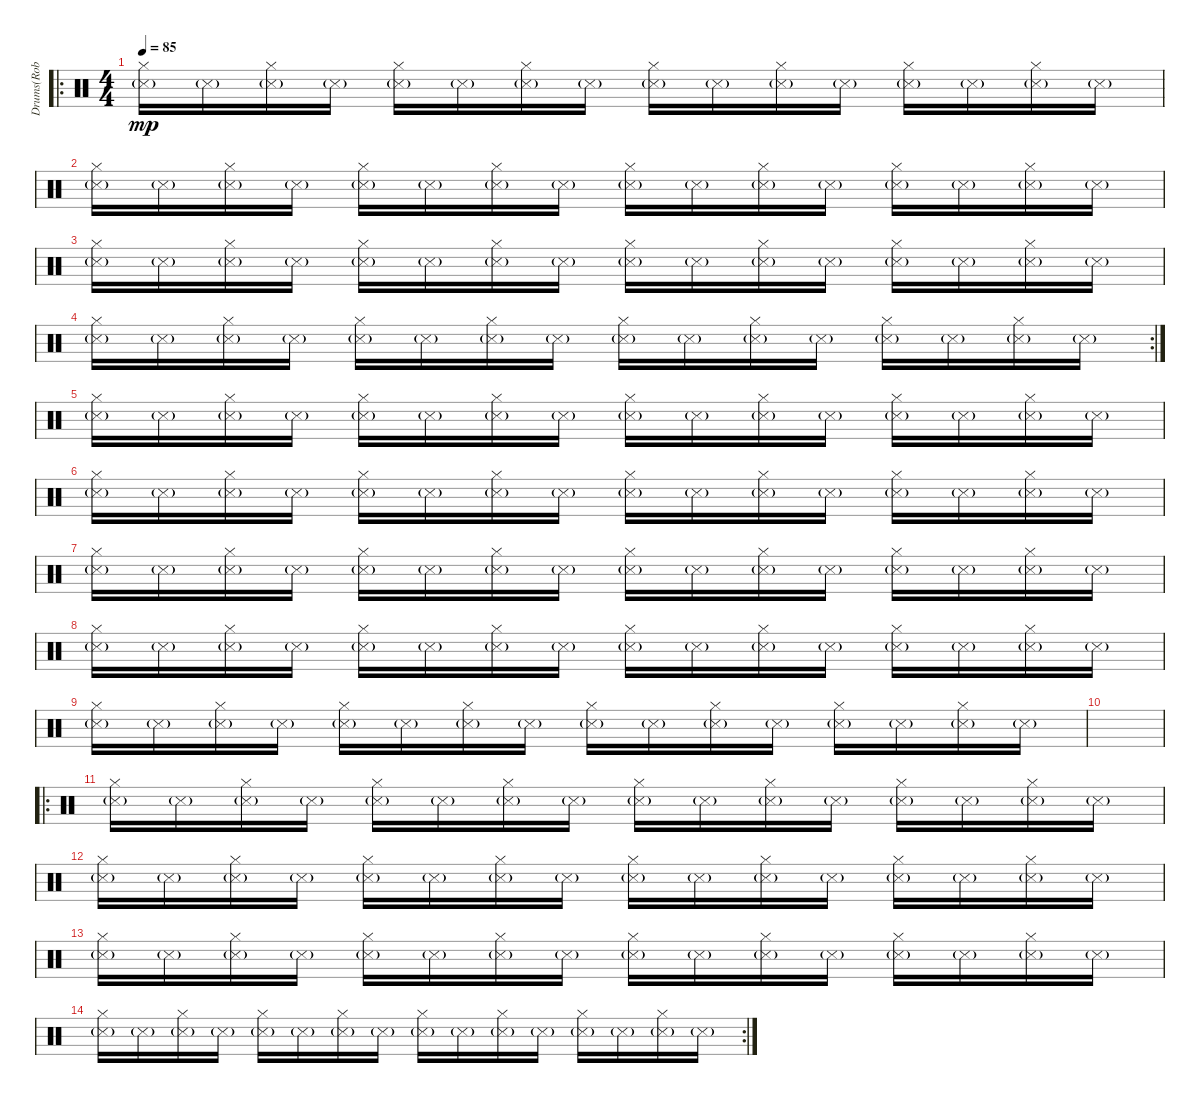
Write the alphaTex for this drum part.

\track ("Drums(Rob Bourdon)(Left hand)" "Drums(Rob ") {instrument percussion}
\staff {score}
\articulation defaults
\ro
\ts (4 4)
\tempo 85
\clef neutral
\ks c
("Metronome (hit)"{g} "Hi-Hat (closed)").16{dy mp} "Metronome (hit)"{g}.16 ("Metronome (hit)"{g} "Hi-Hat (closed)").16 "Metronome (hit)"{g}.16 ("Metronome (hit)"{g} "Hi-Hat (closed)").16 "Metronome (hit)"{g}.16 ("Metronome (hit)"{g} "Hi-Hat (closed)").16 "Metronome (hit)"{g}.16 ("Metronome (hit)"{g} "Hi-Hat (closed)").16 "Metronome (hit)"{g}.16 ("Metronome (hit)"{g} "Hi-Hat (closed)").16 "Metronome (hit)"{g}.16 ("Metronome (hit)"{g} "Hi-Hat (closed)").16 "Metronome (hit)"{g}.16 ("Metronome (hit)"{g} "Hi-Hat (closed)").16 "Metronome (hit)"{g}.16 |
("Metronome (hit)"{g} "Hi-Hat (closed)").16 "Metronome (hit)"{g}.16 ("Metronome (hit)"{g} "Hi-Hat (closed)").16 "Metronome (hit)"{g}.16 ("Metronome (hit)"{g} "Hi-Hat (closed)").16 "Metronome (hit)"{g}.16 ("Metronome (hit)"{g} "Hi-Hat (closed)").16 "Metronome (hit)"{g}.16 ("Metronome (hit)"{g} "Hi-Hat (closed)").16 "Metronome (hit)"{g}.16 ("Metronome (hit)"{g} "Hi-Hat (closed)").16 "Metronome (hit)"{g}.16 ("Metronome (hit)"{g} "Hi-Hat (closed)").16 "Metronome (hit)"{g}.16 ("Metronome (hit)"{g} "Hi-Hat (closed)").16 "Metronome (hit)"{g}.16 |
("Metronome (hit)"{g} "Hi-Hat (closed)").16 "Metronome (hit)"{g}.16 ("Metronome (hit)"{g} "Hi-Hat (closed)").16 "Metronome (hit)"{g}.16 ("Metronome (hit)"{g} "Hi-Hat (closed)").16 "Metronome (hit)"{g}.16 ("Metronome (hit)"{g} "Hi-Hat (closed)").16 "Metronome (hit)"{g}.16 ("Metronome (hit)"{g} "Hi-Hat (closed)").16 "Metronome (hit)"{g}.16 ("Metronome (hit)"{g} "Hi-Hat (closed)").16 "Metronome (hit)"{g}.16 ("Metronome (hit)"{g} "Hi-Hat (closed)").16 "Metronome (hit)"{g}.16 ("Metronome (hit)"{g} "Hi-Hat (closed)").16 "Metronome (hit)"{g}.16 |
\rc 2
("Metronome (hit)"{g} "Hi-Hat (closed)").16 "Metronome (hit)"{g}.16 ("Metronome (hit)"{g} "Hi-Hat (closed)").16 "Metronome (hit)"{g}.16 ("Metronome (hit)"{g} "Hi-Hat (closed)").16 "Metronome (hit)"{g}.16 ("Metronome (hit)"{g} "Hi-Hat (closed)").16 "Metronome (hit)"{g}.16 ("Metronome (hit)"{g} "Hi-Hat (closed)").16 "Metronome (hit)"{g}.16 ("Metronome (hit)"{g} "Hi-Hat (closed)").16 "Metronome (hit)"{g}.16 ("Metronome (hit)"{g} "Hi-Hat (closed)").16 "Metronome (hit)"{g}.16 ("Metronome (hit)"{g} "Hi-Hat (closed)").16 "Metronome (hit)"{g}.16 |
("Metronome (hit)"{g} "Hi-Hat (closed)").16 "Metronome (hit)"{g}.16 ("Metronome (hit)"{g} "Hi-Hat (closed)").16 "Metronome (hit)"{g}.16 ("Metronome (hit)"{g} "Hi-Hat (closed)").16 "Metronome (hit)"{g}.16 ("Metronome (hit)"{g} "Hi-Hat (closed)").16 "Metronome (hit)"{g}.16 ("Metronome (hit)"{g} "Hi-Hat (closed)").16 "Metronome (hit)"{g}.16 ("Metronome (hit)"{g} "Hi-Hat (closed)").16 "Metronome (hit)"{g}.16 ("Metronome (hit)"{g} "Hi-Hat (closed)").16 "Metronome (hit)"{g}.16 ("Metronome (hit)"{g} "Hi-Hat (closed)").16 "Metronome (hit)"{g}.16 |
("Metronome (hit)"{g} "Hi-Hat (closed)").16 "Metronome (hit)"{g}.16 ("Metronome (hit)"{g} "Hi-Hat (closed)").16 "Metronome (hit)"{g}.16 ("Metronome (hit)"{g} "Hi-Hat (closed)").16 "Metronome (hit)"{g}.16 ("Metronome (hit)"{g} "Hi-Hat (closed)").16 "Metronome (hit)"{g}.16 ("Metronome (hit)"{g} "Hi-Hat (closed)").16 "Metronome (hit)"{g}.16 ("Metronome (hit)"{g} "Hi-Hat (closed)").16 "Metronome (hit)"{g}.16 ("Metronome (hit)"{g} "Hi-Hat (closed)").16 "Metronome (hit)"{g}.16 ("Metronome (hit)"{g} "Hi-Hat (closed)").16 "Metronome (hit)"{g}.16 |
("Metronome (hit)"{g} "Hi-Hat (closed)").16 "Metronome (hit)"{g}.16 ("Metronome (hit)"{g} "Hi-Hat (closed)").16 "Metronome (hit)"{g}.16 ("Metronome (hit)"{g} "Hi-Hat (closed)").16 "Metronome (hit)"{g}.16 ("Metronome (hit)"{g} "Hi-Hat (closed)").16 "Metronome (hit)"{g}.16 ("Metronome (hit)"{g} "Hi-Hat (closed)").16 "Metronome (hit)"{g}.16 ("Metronome (hit)"{g} "Hi-Hat (closed)").16 "Metronome (hit)"{g}.16 ("Metronome (hit)"{g} "Hi-Hat (closed)").16 "Metronome (hit)"{g}.16 ("Metronome (hit)"{g} "Hi-Hat (closed)").16 "Metronome (hit)"{g}.16 |
("Metronome (hit)"{g} "Hi-Hat (closed)").16 "Metronome (hit)"{g}.16 ("Metronome (hit)"{g} "Hi-Hat (closed)").16 "Metronome (hit)"{g}.16 ("Metronome (hit)"{g} "Hi-Hat (closed)").16 "Metronome (hit)"{g}.16 ("Metronome (hit)"{g} "Hi-Hat (closed)").16 "Metronome (hit)"{g}.16 ("Metronome (hit)"{g} "Hi-Hat (closed)").16 "Metronome (hit)"{g}.16 ("Metronome (hit)"{g} "Hi-Hat (closed)").16 "Metronome (hit)"{g}.16 ("Metronome (hit)"{g} "Hi-Hat (closed)").16 "Metronome (hit)"{g}.16 ("Metronome (hit)"{g} "Hi-Hat (closed)").16 "Metronome (hit)"{g}.16 |
("Metronome (hit)"{g} "Hi-Hat (closed)").16 "Metronome (hit)"{g}.16 ("Metronome (hit)"{g} "Hi-Hat (closed)").16 "Metronome (hit)"{g}.16 ("Metronome (hit)"{g} "Hi-Hat (closed)").16 "Metronome (hit)"{g}.16 ("Metronome (hit)"{g} "Hi-Hat (closed)").16 "Metronome (hit)"{g}.16 ("Metronome (hit)"{g} "Hi-Hat (closed)").16 "Metronome (hit)"{g}.16 ("Metronome (hit)"{g} "Hi-Hat (closed)").16 "Metronome (hit)"{g}.16 ("Metronome (hit)"{g} "Hi-Hat (closed)").16 "Metronome (hit)"{g}.16 ("Metronome (hit)"{g} "Hi-Hat (closed)").16 "Metronome (hit)"{g}.16 |
|
\ro
("Metronome (hit)"{g} "Hi-Hat (closed)").16 "Metronome (hit)"{g}.16 ("Metronome (hit)"{g} "Hi-Hat (closed)").16 "Metronome (hit)"{g}.16 ("Metronome (hit)"{g} "Hi-Hat (closed)").16 "Metronome (hit)"{g}.16 ("Metronome (hit)"{g} "Hi-Hat (closed)").16 "Metronome (hit)"{g}.16 ("Metronome (hit)"{g} "Hi-Hat (closed)").16 "Metronome (hit)"{g}.16 ("Metronome (hit)"{g} "Hi-Hat (closed)").16 "Metronome (hit)"{g}.16 ("Metronome (hit)"{g} "Hi-Hat (closed)").16 "Metronome (hit)"{g}.16 ("Metronome (hit)"{g} "Hi-Hat (closed)").16 "Metronome (hit)"{g}.16 |
("Metronome (hit)"{g} "Hi-Hat (closed)").16 "Metronome (hit)"{g}.16 ("Metronome (hit)"{g} "Hi-Hat (closed)").16 "Metronome (hit)"{g}.16 ("Metronome (hit)"{g} "Hi-Hat (closed)").16 "Metronome (hit)"{g}.16 ("Metronome (hit)"{g} "Hi-Hat (closed)").16 "Metronome (hit)"{g}.16 ("Metronome (hit)"{g} "Hi-Hat (closed)").16 "Metronome (hit)"{g}.16 ("Metronome (hit)"{g} "Hi-Hat (closed)").16 "Metronome (hit)"{g}.16 ("Metronome (hit)"{g} "Hi-Hat (closed)").16 "Metronome (hit)"{g}.16 ("Metronome (hit)"{g} "Hi-Hat (closed)").16 "Metronome (hit)"{g}.16 |
("Metronome (hit)"{g} "Hi-Hat (closed)").16 "Metronome (hit)"{g}.16 ("Metronome (hit)"{g} "Hi-Hat (closed)").16 "Metronome (hit)"{g}.16 ("Metronome (hit)"{g} "Hi-Hat (closed)").16 "Metronome (hit)"{g}.16 ("Metronome (hit)"{g} "Hi-Hat (closed)").16 "Metronome (hit)"{g}.16 ("Metronome (hit)"{g} "Hi-Hat (closed)").16 "Metronome (hit)"{g}.16 ("Metronome (hit)"{g} "Hi-Hat (closed)").16 "Metronome (hit)"{g}.16 ("Metronome (hit)"{g} "Hi-Hat (closed)").16 "Metronome (hit)"{g}.16 ("Metronome (hit)"{g} "Hi-Hat (closed)").16 "Metronome (hit)"{g}.16 |
\rc 2
("Metronome (hit)"{g} "Hi-Hat (closed)").16 "Metronome (hit)"{g}.16 ("Metronome (hit)"{g} "Hi-Hat (closed)").16 "Metronome (hit)"{g}.16 ("Metronome (hit)"{g} "Hi-Hat (closed)").16 "Metronome (hit)"{g}.16 ("Metronome (hit)"{g} "Hi-Hat (closed)").16 "Metronome (hit)"{g}.16 ("Metronome (hit)"{g} "Hi-Hat (closed)").16 "Metronome (hit)"{g}.16 ("Metronome (hit)"{g} "Hi-Hat (closed)").16 "Metronome (hit)"{g}.16 ("Metronome (hit)"{g} "Hi-Hat (closed)").16 "Metronome (hit)"{g}.16 ("Metronome (hit)"{g} "Hi-Hat (closed)").16 "Metronome (hit)"{g}.16
